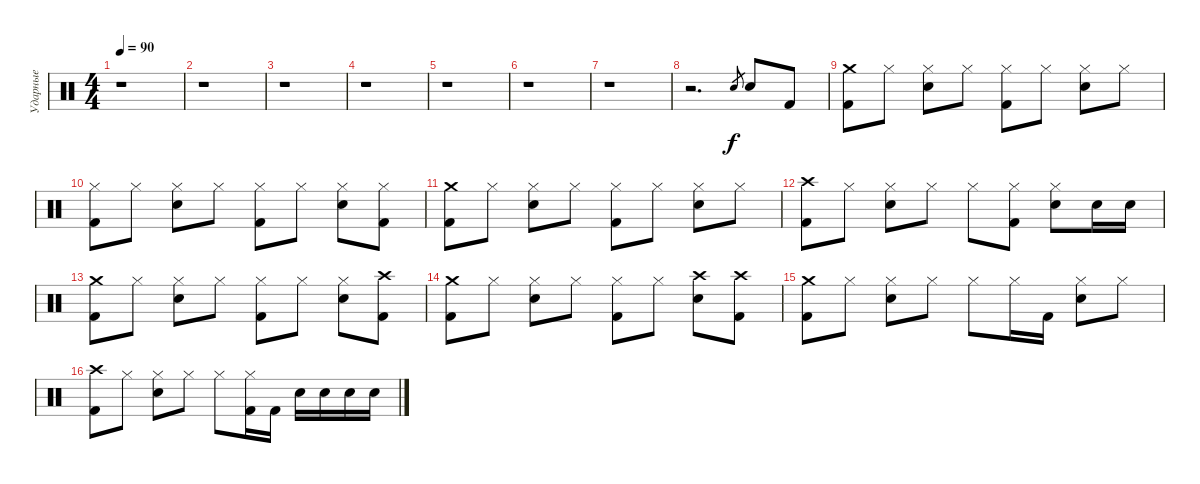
\track ("Ударные" "Ударные") {instrument percussion}
\staff {score}
\articulation defaults
\ts (4 4)
\tempo 90
\clef neutral
\ks c
r.1{dy f} |
r.1 |
r.1 |
r.1 |
r.1 |
r.1 |
r.1 |
r.2{d} "Electric Snare (hit)".8{gr} "Electric Snare (hit)".8 "Kick (hit) 2".8 |
("Crash medium (hit)" "Kick (hit) 2").8 "Hi-Hat (closed)".8 ("Hi-Hat (closed)" "Electric Snare (hit)").8 "Hi-Hat (closed)".8 ("Hi-Hat (closed)" "Kick (hit) 2").8 "Hi-Hat (closed)".8 ("Hi-Hat (closed)" "Electric Snare (hit)").8 "Hi-Hat (closed)".8 |
("Hi-Hat (closed)" "Kick (hit) 2").8 "Hi-Hat (closed)".8 ("Hi-Hat (closed)" "Electric Snare (hit)").8 "Hi-Hat (closed)".8 ("Hi-Hat (closed)" "Kick (hit) 2").8 "Hi-Hat (closed)".8 ("Hi-Hat (closed)" "Electric Snare (hit)").8 ("Hi-Hat (closed)" "Kick (hit) 2").8 |
("Crash medium (hit)" "Kick (hit) 2").8 "Hi-Hat (closed)".8 ("Hi-Hat (closed)" "Electric Snare (hit)").8 "Hi-Hat (closed)".8 ("Hi-Hat (closed)" "Kick (hit) 2").8 "Hi-Hat (closed)".8 ("Hi-Hat (closed)" "Electric Snare (hit)").8 "Hi-Hat (closed)".8 |
("Crash high (hit)" "Kick (hit) 2").8 "Hi-Hat (closed)".8 ("Hi-Hat (closed)" "Electric Snare (hit)").8 "Hi-Hat (closed)".8 "Hi-Hat (closed)".8 ("Hi-Hat (closed)" "Kick (hit) 2").8 ("Hi-Hat (closed)" "Electric Snare (hit)").8 "Electric Snare (hit)".16 "Electric Snare (hit)".16 |
("Crash medium (hit)" "Kick (hit) 2").8 "Hi-Hat (closed)".8 ("Hi-Hat (closed)" "Electric Snare (hit)").8 "Hi-Hat (closed)".8 ("Hi-Hat (closed)" "Kick (hit) 2").8 "Hi-Hat (closed)".8 ("Hi-Hat (closed)" "Electric Snare (hit)").8 ("Crash high (hit)" "Kick (hit) 2").8 |
("Crash medium (hit)" "Kick (hit) 2").8 "Hi-Hat (closed)".8 ("Hi-Hat (closed)" "Electric Snare (hit)").8 "Hi-Hat (closed)".8 ("Hi-Hat (closed)" "Kick (hit) 2").8 "Hi-Hat (closed)".8 ("Crash high (hit)" "Electric Snare (hit)").8 ("Crash high (hit)" "Kick (hit) 2").8 |
("Crash medium (hit)" "Kick (hit) 2").8 "Hi-Hat (closed)".8 ("Hi-Hat (closed)" "Electric Snare (hit)").8 "Hi-Hat (closed)".8 "Hi-Hat (closed)".8 "Hi-Hat (closed)".16 "Kick (hit) 2".16 ("Hi-Hat (closed)" "Electric Snare (hit)").8 "Hi-Hat (closed)".8 |
("Crash high (hit)" "Kick (hit) 2").8 "Hi-Hat (closed)".8 ("Hi-Hat (closed)" "Electric Snare (hit)").8 "Hi-Hat (closed)".8 "Hi-Hat (closed)".8 ("Hi-Hat (closed)" "Kick (hit) 2").16 "Kick (hit) 2".16 "Electric Snare (hit)".16 "Electric Snare (hit)".16 "Electric Snare (hit)".16 "Electric Snare (hit)".16
